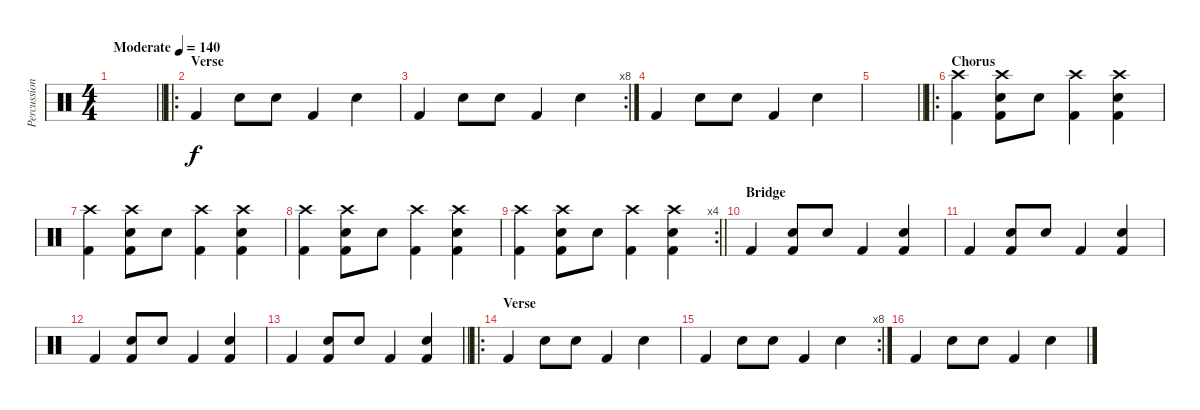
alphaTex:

\track ("Percussion" "Percussion") {instrument percussion}
\staff {score}
\articulation defaults
\ts (4 4)
\tempo (140 "Moderate")
\clef neutral
\barLineRight lightlight
\ks c
|
\ro
\section ("" "Verse")
"Kick (hit) 2".4 "Hand Clap (hit)".8 "Hand Clap (hit)".8 "Kick (hit) 2".4 "Hand Clap (hit)".4 |
\rc 8 "Kick (hit) 2".4 "Hand Clap (hit)".8 "Hand Clap (hit)".8 "Kick (hit) 2".4 "Hand Clap (hit)".4
|
"Kick (hit) 2".4 "Hand Clap (hit)".8 "Hand Clap (hit)".8 "Kick (hit) 2".4 "Hand Clap (hit)".4 |
\barLineRight lightlight
|
\ro
\section ("" "Chorus")
("Crash high (hit)" "Kick (hit) 2").4 ("Crash high (hit)" "Hand Clap (hit)" "Kick (hit) 2").8 "Hand Clap (hit)".8 ("Crash high (hit)" "Kick (hit) 2").4 ("Crash high (hit)" "Hand Clap (hit)" "Kick (hit) 2").4 |
("Crash high (hit)" "Kick (hit) 2").4 ("Crash high (hit)" "Hand Clap (hit)" "Kick (hit) 2").8 "Hand Clap (hit)".8 ("Crash high (hit)" "Kick (hit) 2").4 ("Crash high (hit)" "Hand Clap (hit)" "Kick (hit) 2").4 |
("Crash high (hit)" "Kick (hit) 2").4 ("Crash high (hit)" "Hand Clap (hit)" "Kick (hit) 2").8 "Hand Clap (hit)".8 ("Crash high (hit)" "Kick (hit) 2").4 ("Crash high (hit)" "Hand Clap (hit)" "Kick (hit) 2").4 |
\rc 4
\barLineRight lightlight
("Crash high (hit)" "Kick (hit) 2").4 ("Crash high (hit)" "Hand Clap (hit)" "Kick (hit) 2").8 "Hand Clap (hit)".8 ("Crash high (hit)" "Kick (hit) 2").4 ("Crash high (hit)" "Hand Clap (hit)" "Kick (hit) 2").4 |
\section ("" "Bridge")
"Kick (hit) 2".4 ("Hand Clap (hit)" "Kick (hit) 2").8 "Hand Clap (hit)".8 "Kick (hit) 2".4 ("Hand Clap (hit)" "Kick (hit) 2").4 |
"Kick (hit) 2".4 ("Hand Clap (hit)" "Kick (hit) 2").8 "Hand Clap (hit)".8 "Kick (hit) 2".4 ("Hand Clap (hit)" "Kick (hit) 2").4 |
"Kick (hit) 2".4 ("Hand Clap (hit)" "Kick (hit) 2").8 "Hand Clap (hit)".8 "Kick (hit) 2".4 ("Hand Clap (hit)" "Kick (hit) 2").4 |
\barLineRight lightlight "Kick (hit) 2".4
("Hand Clap (hit)" "Kick (hit) 2").8 "Hand Clap (hit)".8 "Kick (hit) 2".4 ("Hand Clap (hit)" "Kick (hit) 2").4 |
\ro
\section ("" "Verse")
"Kick (hit) 2".4 "Hand Clap (hit)".8 "Hand Clap (hit)".8 "Kick (hit) 2".4 "Hand Clap (hit)".4 |
\rc 8 "Kick (hit) 2".4 "Hand Clap (hit)".8 "Hand Clap (hit)".8 "Kick (hit) 2".4 "Hand Clap (hit)".4
|
"Kick (hit) 2".4 "Hand Clap (hit)".8 "Hand Clap (hit)".8 "Kick (hit) 2".4 "Hand Clap (hit)".4
